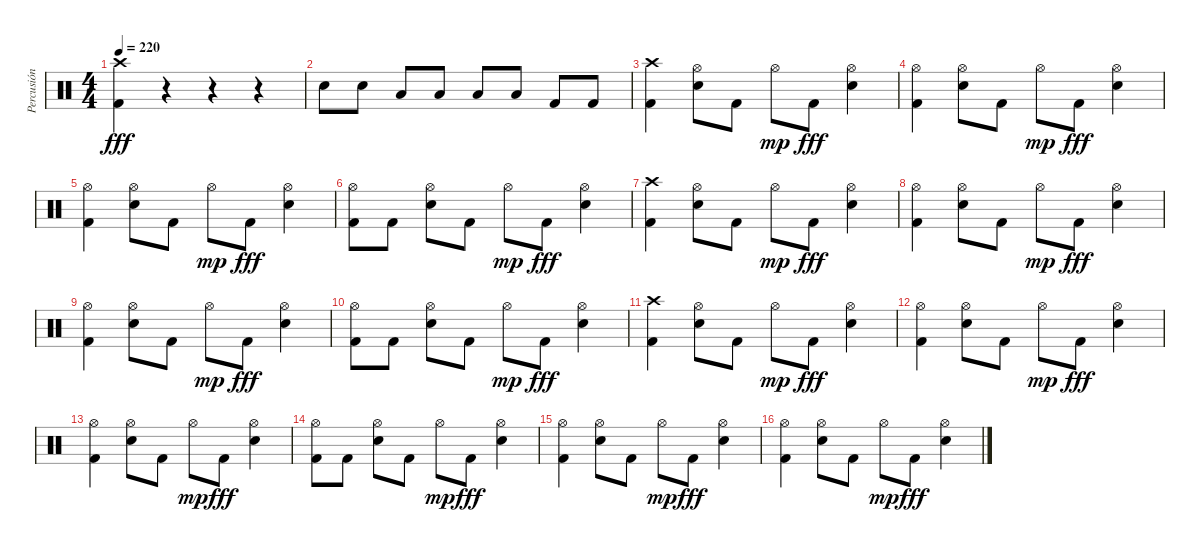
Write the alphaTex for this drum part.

\track ("Percusión" "Percusión") {instrument percussion}
\staff {score}
\articulation defaults
\ts (4 4)
\tempo 220
\clef neutral
\ks c
("Crash high (hit)" "Kick (hit) 2").4{dy fff} r.4 r.4 r.4 |
"Snare (hit) 2".8 "Snare (hit) 2".8 "Low Tom (hit)".8 "Low Tom (hit)".8 "Low Floor Tom (hit)".8 "Low Floor Tom (hit)".8 "Kick (hit) 2".8 "Kick (hit) 2".8 |
("Crash high (hit)" "Kick (hit) 2").4 ("Hi-Hat (open)" "Snare (hit) 2").8 "Kick (hit) 2".8 "Hi-Hat (open)".8{dy mp} "Kick (hit) 2".8{dy fff} ("Hi-Hat (open)" "Snare (hit) 2").4 |
("Hi-Hat (open)" "Kick (hit) 2").4 ("Hi-Hat (open)" "Snare (hit) 2").8 "Kick (hit) 2".8 "Hi-Hat (open)".8{dy mp} "Kick (hit) 2".8{dy fff} ("Hi-Hat (open)" "Snare (hit) 2").4 |
("Hi-Hat (open)" "Kick (hit) 2").4 ("Hi-Hat (open)" "Snare (hit) 2").8 "Kick (hit) 2".8 "Hi-Hat (open)".8{dy mp} "Kick (hit) 2".8{dy fff} ("Hi-Hat (open)" "Snare (hit) 2").4 |
("Hi-Hat (open)" "Kick (hit) 2").8 "Kick (hit) 2".8 ("Hi-Hat (open)" "Snare (hit) 2").8 "Kick (hit) 2".8 "Hi-Hat (open)".8{dy mp} "Kick (hit) 2".8{dy fff} ("Hi-Hat (open)" "Snare (hit) 2").4 |
("Crash high (hit)" "Kick (hit) 2").4 ("Hi-Hat (open)" "Snare (hit) 2").8 "Kick (hit) 2".8 "Hi-Hat (open)".8{dy mp} "Kick (hit) 2".8{dy fff} ("Hi-Hat (open)" "Snare (hit) 2").4 |
("Hi-Hat (open)" "Kick (hit) 2").4 ("Hi-Hat (open)" "Snare (hit) 2").8 "Kick (hit) 2".8 "Hi-Hat (open)".8{dy mp} "Kick (hit) 2".8{dy fff} ("Hi-Hat (open)" "Snare (hit) 2").4 |
("Hi-Hat (open)" "Kick (hit) 2").4 ("Hi-Hat (open)" "Snare (hit) 2").8 "Kick (hit) 2".8 "Hi-Hat (open)".8{dy mp} "Kick (hit) 2".8{dy fff} ("Hi-Hat (open)" "Snare (hit) 2").4 |
("Hi-Hat (open)" "Kick (hit) 2").8 "Kick (hit) 2".8 ("Hi-Hat (open)" "Snare (hit) 2").8 "Kick (hit) 2".8 "Hi-Hat (open)".8{dy mp} "Kick (hit) 2".8{dy fff} ("Hi-Hat (open)" "Snare (hit) 2").4 |
("Crash high (hit)" "Kick (hit) 2").4 ("Hi-Hat (open)" "Snare (hit) 2").8 "Kick (hit) 2".8 "Hi-Hat (open)".8{dy mp} "Kick (hit) 2".8{dy fff} ("Hi-Hat (open)" "Snare (hit) 2").4 |
("Hi-Hat (open)" "Kick (hit) 2").4 ("Hi-Hat (open)" "Snare (hit) 2").8 "Kick (hit) 2".8 "Hi-Hat (open)".8{dy mp} "Kick (hit) 2".8{dy fff} ("Hi-Hat (open)" "Snare (hit) 2").4 |
("Hi-Hat (open)" "Kick (hit) 2").4 ("Hi-Hat (open)" "Snare (hit) 2").8 "Kick (hit) 2".8 "Hi-Hat (open)".8{dy mp} "Kick (hit) 2".8{dy fff} ("Hi-Hat (open)" "Snare (hit) 2").4 |
("Hi-Hat (open)" "Kick (hit) 2").8 "Kick (hit) 2".8 ("Hi-Hat (open)" "Snare (hit) 2").8 "Kick (hit) 2".8 "Hi-Hat (open)".8{dy mp} "Kick (hit) 2".8{dy fff} ("Hi-Hat (open)" "Snare (hit) 2").4 |
("Hi-Hat (open)" "Kick (hit) 2").4 ("Hi-Hat (open)" "Snare (hit) 2").8 "Kick (hit) 2".8 "Hi-Hat (open)".8{dy mp} "Kick (hit) 2".8{dy fff} ("Hi-Hat (open)" "Snare (hit) 2").4 |
("Hi-Hat (open)" "Kick (hit) 2").4 ("Hi-Hat (open)" "Snare (hit) 2").8 "Kick (hit) 2".8 "Hi-Hat (open)".8{dy mp} "Kick (hit) 2".8{dy fff} ("Hi-Hat (open)" "Snare (hit) 2").4
